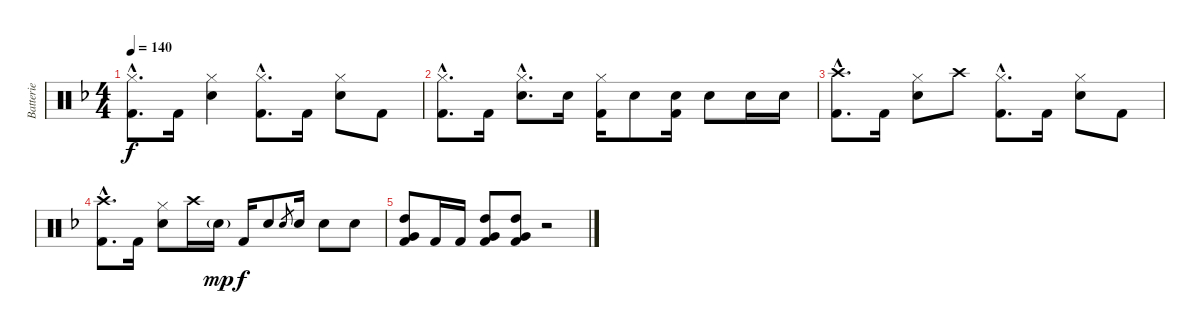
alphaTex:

\track ("Batterie" "Batterie") {instrument percussion}
\staff {score}
\articulation defaults
\ts (4 4)
\tempo 140
\clef neutral
\ks f
("Hi-Hat (closed)"{hac} "Kick (hit) 2"{hac}).8{d dy f} "Kick (hit) 2".16 ("Hi-Hat (closed)" "Snare (hit) 2").4 ("Hi-Hat (closed)"{hac} "Kick (hit) 2"{hac}).8{d} "Kick (hit) 2".16 ("Hi-Hat (closed)" "Snare (hit) 2").8 "Kick (hit) 2".8 |
("Hi-Hat (closed)"{hac} "Kick (hit) 2"{hac}).8{d} "Kick (hit) 2".16 ("Hi-Hat (closed)"{hac} "Snare (hit) 2"{hac}).8{d} "Snare (hit) 2".16 ("Hi-Hat (closed)" "Kick (hit) 2").16 "Snare (hit) 2".8 ("Snare (hit) 2" "Kick (hit) 2").16 "Snare (hit) 2".8 "Snare (hit) 2".16 "Snare (hit) 2".16 |
("Crash high (hit)"{hac} "Kick (hit) 2"{hac}).8{d} "Kick (hit) 2".16 ("Hi-Hat (closed)" "Snare (hit) 2").8 "Crash high (hit)".8 ("Hi-Hat (closed)"{hac} "Kick (hit) 2"{hac}).8{d} "Kick (hit) 2".16 ("Hi-Hat (closed)" "Snare (hit) 2").8 "Kick (hit) 2".8 |
("Crash high (hit)"{hac} "Kick (hit) 2"{hac}).8{d} "Kick (hit) 2".16 ("Hi-Hat (closed)" "Snare (hit) 2").8 "Crash high (hit)".16 "Snare (hit) 2"{g}.16{dy mp} "Kick (hit) 2".16{dy f} "Snare (hit) 2".8 "Snare (hit) 2".8{gr} "Snare (hit) 2".16 "Snare (hit) 2".8 "Snare (hit) 2".8 |
("High Tom (hit)" "Very Low Tom (hit)" "Kick (hit) 2").8 "Kick (hit) 2".16 "Kick (hit) 2".16 ("High Tom (hit)" "Very Low Tom (hit)" "Kick (hit) 2").8 ("High Tom (hit)" "Very Low Tom (hit)" "Kick (hit) 2").8 r.2
